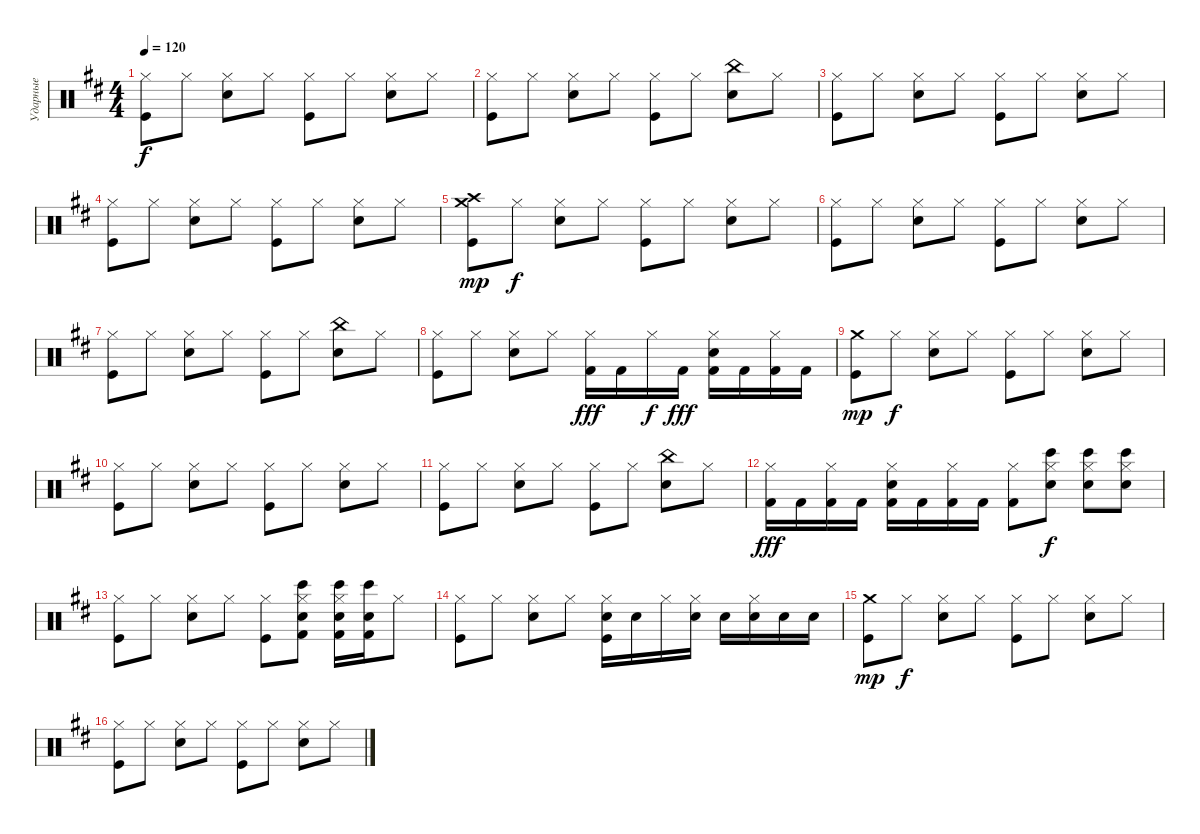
\track ("Ударные" "Ударные") {instrument percussion}
\staff {score}
\articulation defaults
\ts (4 4)
\tempo 120
\clef neutral
\ks d
("Hi-Hat (closed)" "Kick (hit)").8{dy f} "Hi-Hat (closed)".8 ("Hi-Hat (closed)" "Snare (hit) 2").8 "Hi-Hat (closed)".8 ("Hi-Hat (closed)" "Kick (hit)").8 "Hi-Hat (closed)".8 ("Hi-Hat (closed)" "Snare (hit) 2").8 "Hi-Hat (closed)".8 |
("Hi-Hat (closed)" "Kick (hit)").8 "Hi-Hat (closed)".8 ("Hi-Hat (closed)" "Snare (hit) 2").8 "Hi-Hat (closed)".8 ("Hi-Hat (closed)" "Kick (hit)").8 "Hi-Hat (closed)".8 ("China (hit)" "Snare (hit) 2").8{balance 14} "Hi-Hat (closed)".8{balance 8} |
("Hi-Hat (closed)" "Kick (hit)").8 "Hi-Hat (closed)".8 ("Hi-Hat (closed)" "Snare (hit) 2").8 "Hi-Hat (closed)".8 ("Hi-Hat (closed)" "Kick (hit)").8 "Hi-Hat (closed)".8 ("Hi-Hat (closed)" "Snare (hit) 2").8 "Hi-Hat (closed)".8 |
("Hi-Hat (closed)" "Kick (hit)").8 "Hi-Hat (closed)".8 ("Hi-Hat (closed)" "Snare (hit) 2").8 "Hi-Hat (closed)".8 ("Hi-Hat (closed)" "Kick (hit)").8 "Hi-Hat (closed)".8 ("Hi-Hat (closed)" "Snare (hit) 2").8 "Hi-Hat (closed)".8 |
("Crash high (hit)" "Kick (hit)" "Crash medium (hit)").8{dy mp} "Hi-Hat (closed)".8{dy f} ("Hi-Hat (closed)" "Snare (hit) 2").8 "Hi-Hat (closed)".8 ("Hi-Hat (closed)" "Kick (hit)").8 "Hi-Hat (closed)".8 ("Hi-Hat (closed)" "Snare (hit) 2").8 "Hi-Hat (closed)".8 |
\ks bminor
("Kick (hit)" "Hi-Hat (closed)").8 "Hi-Hat (closed)".8 ("Hi-Hat (closed)" "Snare (hit) 2").8 "Hi-Hat (closed)".8 ("Hi-Hat (closed)" "Kick (hit)").8 "Hi-Hat (closed)".8 ("Hi-Hat (closed)" "Snare (hit) 2").8 "Hi-Hat (closed)".8 |
("Hi-Hat (closed)" "Kick (hit)").8 "Hi-Hat (closed)".8 ("Hi-Hat (closed)" "Snare (hit) 2").8 "Hi-Hat (closed)".8 ("Hi-Hat (closed)" "Kick (hit)").8 "Hi-Hat (closed)".8 ("China (hit)" "Snare (hit) 2").8 "Hi-Hat (closed)".8 |
("Hi-Hat (closed)" "Kick (hit)").8 "Hi-Hat (closed)".8 ("Hi-Hat (closed)" "Snare (hit) 2").8 "Hi-Hat (closed)".8 ("Hi-Hat (closed)" "Kick (hit) 2").16{dy fff} "Kick (hit) 2".16 "Hi-Hat (closed)".16{dy f} "Kick (hit) 2".16{dy fff} ("Hi-Hat (closed)" "Snare (hit) 2" "Kick (hit) 2").16 "Kick (hit) 2".16 ("Hi-Hat (closed)" "Kick (hit) 2").16 "Kick (hit) 2".16 |
("Crash medium (hit)" "Kick (hit)").8{dy mp} "Hi-Hat (closed)".8{dy f} ("Hi-Hat (closed)" "Snare (hit) 2").8 "Hi-Hat (closed)".8 ("Hi-Hat (closed)" "Kick (hit)").8 "Hi-Hat (closed)".8 ("Hi-Hat (closed)" "Snare (hit) 2").8 "Hi-Hat (closed)".8 |
("Hi-Hat (closed)" "Kick (hit)").8 "Hi-Hat (closed)".8 ("Hi-Hat (closed)" "Snare (hit) 2").8 "Hi-Hat (closed)".8 ("Hi-Hat (closed)" "Kick (hit)").8 "Hi-Hat (closed)".8 ("Hi-Hat (closed)" "Snare (hit) 2").8 "Hi-Hat (closed)".8 |
("Hi-Hat (closed)" "Kick (hit)").8 "Hi-Hat (closed)".8 ("Hi-Hat (closed)" "Snare (hit) 2").8 "Hi-Hat (closed)".8 ("Hi-Hat (closed)" "Kick (hit)").8 "Hi-Hat (closed)".8 ("China (hit)" "Snare (hit) 2").8 "Hi-Hat (closed)".8 |
("Hi-Hat (closed)" "Kick (hit) 2").16{dy fff} "Kick (hit) 2".16 ("Hi-Hat (closed)" "Kick (hit) 2").16 "Kick (hit) 2".16 ("Hi-Hat (closed)" "Snare (hit) 2" "Kick (hit) 2").16 "Kick (hit) 2".16 ("Hi-Hat (closed)" "Kick (hit) 2").16 "Kick (hit) 2".16 ("Kick (hit) 2" "Hi-Hat (closed)").8 ("Hi-Hat (closed)" "Bongo High (hit)" "Snare (hit) 2").8{dy f} ("Hi-Hat (closed)" "Snare (hit) 2" "Bongo High (hit)").8 ("Hi-Hat (closed)" "Bongo High (hit)" "Snare (hit) 2").8 |
("Hi-Hat (closed)" "Kick (hit)").8 "Hi-Hat (closed)".8 ("Hi-Hat (closed)" "Snare (hit) 2").8 "Hi-Hat (closed)".8 ("Hi-Hat (closed)" "Kick (hit)").8 ("Hi-Hat (closed)" "Bongo High (hit)" "Hand Clap (hit)" "Kick (hit) 2").8{balance 14} ("Hi-Hat (closed)" "Snare (hit) 2" "Bongo High (hit)" "Kick (hit) 2").16 ("Bongo High (hit)" "Hand Clap (hit)" "Kick (hit) 2").16 "Hi-Hat (closed)".8{balance 8} |
("Hi-Hat (closed)" "Kick (hit)").8 "Hi-Hat (closed)".8 ("Hi-Hat (closed)" "Snare (hit) 2").8 "Hi-Hat (closed)".8 ("Hi-Hat (closed)" "Kick (hit)" "Snare (hit) 2").16 "Snare (hit) 2".16 "Hi-Hat (closed)".16 ("Hi-Hat (closed)" "Snare (hit) 2").16 "Snare (hit) 2".16 ("Hi-Hat (closed)" "Snare (hit) 2").16 "Snare (hit) 2".16 "Snare (hit) 2".16 |
("Crash medium (hit)" "Kick (hit)").8{dy mp} "Hi-Hat (closed)".8{dy f} ("Hi-Hat (closed)" "Snare (hit) 2").8 "Hi-Hat (closed)".8 ("Hi-Hat (closed)" "Kick (hit)").8 "Hi-Hat (closed)".8 ("Hi-Hat (closed)" "Snare (hit) 2").8 "Hi-Hat (closed)".8 |
("Hi-Hat (closed)" "Kick (hit)").8 "Hi-Hat (closed)".8 ("Hi-Hat (closed)" "Snare (hit) 2").8 "Hi-Hat (closed)".8 ("Hi-Hat (closed)" "Kick (hit)").8 "Hi-Hat (closed)".8 ("Hi-Hat (closed)" "Snare (hit) 2").8 "Hi-Hat (closed)".8
